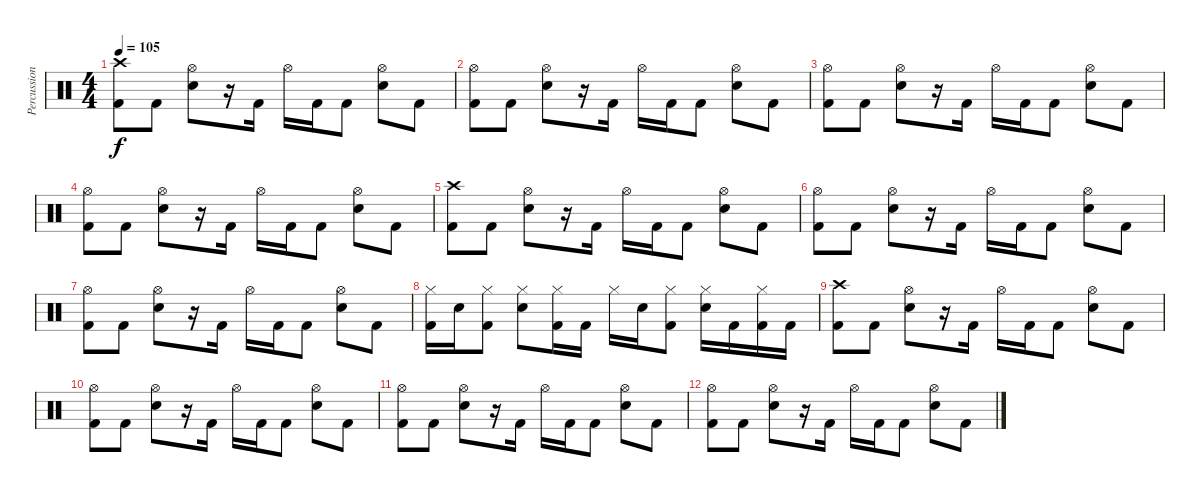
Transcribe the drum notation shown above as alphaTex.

\track ("Percussion" "Percussion") {instrument percussion}
\staff {score}
\articulation defaults
\ts (4 4)
\tempo 105
\clef neutral
\ks c
("Crash high (hit)" "Kick (hit) 2").8{dy f} "Kick (hit) 2".8 ("Hi-Hat (open)" "Snare (hit) 2").8 r.16 "Kick (hit) 2".16 "Hi-Hat (open)".16 "Kick (hit) 2".16 "Kick (hit) 2".8 ("Hi-Hat (open)" "Snare (hit) 2").8 "Kick (hit) 2".8 |
("Hi-Hat (open)" "Kick (hit) 2").8 "Kick (hit) 2".8 ("Hi-Hat (open)" "Snare (hit) 2").8 r.16 "Kick (hit) 2".16 "Hi-Hat (open)".16 "Kick (hit) 2".16 "Kick (hit) 2".8 ("Hi-Hat (open)" "Snare (hit) 2").8 "Kick (hit) 2".8 |
("Hi-Hat (open)" "Kick (hit) 2").8 "Kick (hit) 2".8 ("Hi-Hat (open)" "Snare (hit) 2").8 r.16 "Kick (hit) 2".16 "Hi-Hat (open)".16 "Kick (hit) 2".16 "Kick (hit) 2".8 ("Hi-Hat (open)" "Snare (hit) 2").8 "Kick (hit) 2".8 |
("Hi-Hat (open)" "Kick (hit) 2").8 "Kick (hit) 2".8 ("Hi-Hat (open)" "Snare (hit) 2").8 r.16 "Kick (hit) 2".16 "Hi-Hat (open)".16 "Kick (hit) 2".16 "Kick (hit) 2".8 ("Hi-Hat (open)" "Snare (hit) 2").8 "Kick (hit) 2".8 |
("Crash high (hit)" "Kick (hit) 2").8 "Kick (hit) 2".8 ("Hi-Hat (open)" "Snare (hit) 2").8 r.16 "Kick (hit) 2".16 "Hi-Hat (open)".16 "Kick (hit) 2".16 "Kick (hit) 2".8 ("Hi-Hat (open)" "Snare (hit) 2").8 "Kick (hit) 2".8 |
("Hi-Hat (open)" "Kick (hit) 2").8 "Kick (hit) 2".8 ("Hi-Hat (open)" "Snare (hit) 2").8 r.16 "Kick (hit) 2".16 "Hi-Hat (open)".16 "Kick (hit) 2".16 "Kick (hit) 2".8 ("Hi-Hat (open)" "Snare (hit) 2").8 "Kick (hit) 2".8 |
("Hi-Hat (open)" "Kick (hit) 2").8 "Kick (hit) 2".8 ("Hi-Hat (open)" "Snare (hit) 2").8 r.16 "Kick (hit) 2".16 "Hi-Hat (open)".16 "Kick (hit) 2".16 "Kick (hit) 2".8 ("Hi-Hat (open)" "Snare (hit) 2").8 "Kick (hit) 2".8 |
("Hi-Hat (closed)" "Kick (hit) 2").16 "Snare (hit) 2".16 ("Hi-Hat (closed)" "Kick (hit) 2").8 ("Hi-Hat (closed)" "Snare (hit) 2").8 ("Hi-Hat (closed)" "Kick (hit) 2").16 "Kick (hit) 2".16 "Hi-Hat (closed)".16 "Snare (hit) 2".16 ("Hi-Hat (closed)" "Kick (hit) 2").8 ("Hi-Hat (closed)" "Snare (hit) 2").16 "Kick (hit) 2".16 ("Hi-Hat (closed)" "Kick (hit) 2").16 "Kick (hit) 2".16 |
("Crash high (hit)" "Kick (hit) 2").8 "Kick (hit) 2".8 ("Hi-Hat (open)" "Snare (hit) 2").8 r.16 "Kick (hit) 2".16 "Hi-Hat (open)".16 "Kick (hit) 2".16 "Kick (hit) 2".8 ("Hi-Hat (open)" "Snare (hit) 2").8 "Kick (hit) 2".8 |
("Hi-Hat (open)" "Kick (hit) 2").8 "Kick (hit) 2".8 ("Hi-Hat (open)" "Snare (hit) 2").8 r.16 "Kick (hit) 2".16 "Hi-Hat (open)".16 "Kick (hit) 2".16 "Kick (hit) 2".8 ("Hi-Hat (open)" "Snare (hit) 2").8 "Kick (hit) 2".8 |
("Hi-Hat (open)" "Kick (hit) 2").8 "Kick (hit) 2".8 ("Hi-Hat (open)" "Snare (hit) 2").8 r.16 "Kick (hit) 2".16 "Hi-Hat (open)".16 "Kick (hit) 2".16 "Kick (hit) 2".8 ("Hi-Hat (open)" "Snare (hit) 2").8 "Kick (hit) 2".8 |
("Hi-Hat (open)" "Kick (hit) 2").8 "Kick (hit) 2".8 ("Hi-Hat (open)" "Snare (hit) 2").8 r.16 "Kick (hit) 2".16 "Hi-Hat (open)".16 "Kick (hit) 2".16 "Kick (hit) 2".8 ("Hi-Hat (open)" "Snare (hit) 2").8 "Kick (hit) 2".8
